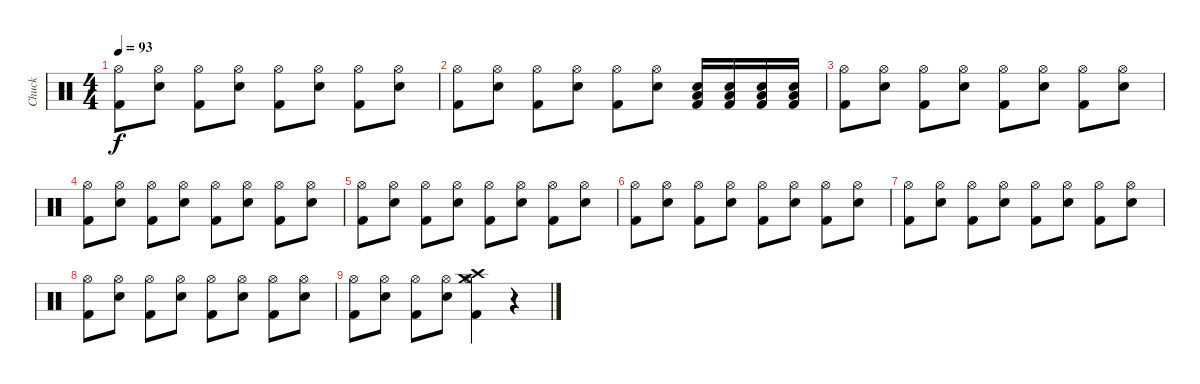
\track ("Chuck" "Chuck") {instrument percussion}
\staff {score}
\articulation defaults
\ts (4 4)
\tempo 93
\clef neutral
\ks c
("Hi-Hat (open)" "Kick (hit) 2").8{dy f} ("Hi-Hat (open)" "Snare (hit) 2").8 ("Hi-Hat (open)" "Kick (hit) 2").8 ("Hi-Hat (open)" "Snare (hit) 2").8 ("Hi-Hat (open)" "Kick (hit) 2").8 ("Hi-Hat (open)" "Snare (hit) 2").8 ("Hi-Hat (open)" "Kick (hit) 2").8 ("Hi-Hat (open)" "Snare (hit) 2").8 |
("Hi-Hat (open)" "Kick (hit) 2").8 ("Hi-Hat (open)" "Snare (hit) 2").8 ("Hi-Hat (open)" "Kick (hit) 2").8 ("Hi-Hat (open)" "Snare (hit) 2").8 ("Hi-Hat (open)" "Kick (hit) 2").8 ("Hi-Hat (open)" "Snare (hit) 2").8 ("Kick (hit) 2" "Low Tom (hit)" "Snare (hit) 2").16 ("Kick (hit) 2" "Low Tom (hit)" "Snare (hit) 2").16 ("Kick (hit) 2" "Low Tom (hit)" "Snare (hit) 2").16 ("Kick (hit) 2" "Low Tom (hit)" "Snare (hit) 2").16 |
("Hi-Hat (open)" "Kick (hit) 2").8 ("Hi-Hat (open)" "Snare (hit) 2").8 ("Hi-Hat (open)" "Kick (hit) 2").8 ("Hi-Hat (open)" "Snare (hit) 2").8 ("Hi-Hat (open)" "Kick (hit) 2").8 ("Hi-Hat (open)" "Snare (hit) 2").8 ("Hi-Hat (open)" "Kick (hit) 2").8 ("Hi-Hat (open)" "Snare (hit) 2").8 |
("Hi-Hat (open)" "Kick (hit) 2").8 ("Hi-Hat (open)" "Snare (hit) 2").8 ("Hi-Hat (open)" "Kick (hit) 2").8 ("Hi-Hat (open)" "Snare (hit) 2").8 ("Hi-Hat (open)" "Kick (hit) 2").8 ("Hi-Hat (open)" "Snare (hit) 2").8 ("Hi-Hat (open)" "Kick (hit) 2").8 ("Hi-Hat (open)" "Snare (hit) 2").8 |
("Hi-Hat (open)" "Kick (hit) 2").8 ("Hi-Hat (open)" "Snare (hit) 2").8 ("Hi-Hat (open)" "Kick (hit) 2").8 ("Hi-Hat (open)" "Snare (hit) 2").8 ("Hi-Hat (open)" "Kick (hit) 2").8 ("Hi-Hat (open)" "Snare (hit) 2").8 ("Hi-Hat (open)" "Kick (hit) 2").8 ("Hi-Hat (open)" "Snare (hit) 2").8 |
("Hi-Hat (open)" "Kick (hit) 2").8 ("Hi-Hat (open)" "Snare (hit) 2").8 ("Hi-Hat (open)" "Kick (hit) 2").8 ("Hi-Hat (open)" "Snare (hit) 2").8 ("Hi-Hat (open)" "Kick (hit) 2").8 ("Hi-Hat (open)" "Snare (hit) 2").8 ("Hi-Hat (open)" "Kick (hit) 2").8 ("Hi-Hat (open)" "Snare (hit) 2").8 |
("Hi-Hat (open)" "Kick (hit) 2").8 ("Hi-Hat (open)" "Snare (hit) 2").8 ("Hi-Hat (open)" "Kick (hit) 2").8 ("Hi-Hat (open)" "Snare (hit) 2").8 ("Hi-Hat (open)" "Kick (hit) 2").8 ("Hi-Hat (open)" "Snare (hit) 2").8 ("Hi-Hat (open)" "Kick (hit) 2").8 ("Hi-Hat (open)" "Snare (hit) 2").8 |
("Hi-Hat (open)" "Kick (hit) 2").8 ("Hi-Hat (open)" "Snare (hit) 2").8 ("Hi-Hat (open)" "Kick (hit) 2").8 ("Hi-Hat (open)" "Snare (hit) 2").8 ("Hi-Hat (open)" "Kick (hit) 2").8 ("Hi-Hat (open)" "Snare (hit) 2").8 ("Hi-Hat (open)" "Kick (hit) 2").8 ("Hi-Hat (open)" "Snare (hit) 2").8 |
("Hi-Hat (open)" "Kick (hit) 2").8 ("Hi-Hat (open)" "Snare (hit) 2").8 ("Hi-Hat (open)" "Kick (hit) 2").8 ("Hi-Hat (open)" "Snare (hit) 2").8 ("Crash medium (hit)" "Hi-Hat (open)" "Crash high (hit)" "Kick (hit) 2").4 r.4
